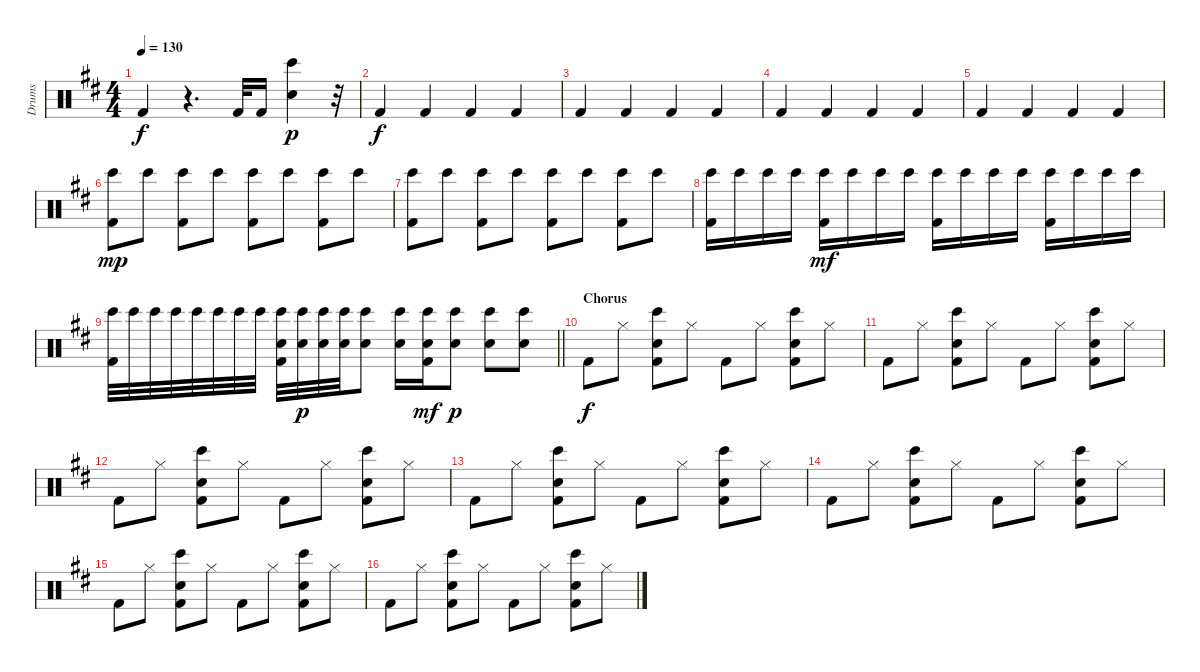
\track ("Drums" "Drums") {instrument percussion}
\staff {score}
\articulation defaults
\ts (4 4)
\tempo 130
\clef neutral
\ks d "Kick (hit) 2".4{dy f}
r.4{d} "Kick (hit) 2".32 "Kick (hit) 2".16 ("Electric Snare (hit)" "Bongo High (hit)").4{dy p} r.32 |
"Kick (hit) 2".4{dy f} "Kick (hit) 2".4 "Kick (hit) 2".4 "Kick (hit) 2".4 |
"Kick (hit) 2".4 "Kick (hit) 2".4 "Kick (hit) 2".4 "Kick (hit) 2".4 |
"Kick (hit) 2".4 "Kick (hit) 2".4 "Kick (hit) 2".4 "Kick (hit) 2".4 |
"Kick (hit) 2".4 "Kick (hit) 2".4 "Kick (hit) 2".4 "Kick (hit) 2".4 |
("Bongo High (hit)" "Kick (hit) 2").8{dy mp} "Bongo High (hit)".8 ("Bongo High (hit)" "Kick (hit) 2").8 "Bongo High (hit)".8 ("Bongo High (hit)" "Kick (hit) 2").8 "Bongo High (hit)".8 ("Bongo High (hit)" "Kick (hit) 2").8 "Bongo High (hit)".8 |
("Bongo High (hit)" "Kick (hit) 2").8 "Bongo High (hit)".8 ("Bongo High (hit)" "Kick (hit) 2").8 "Bongo High (hit)".8 ("Bongo High (hit)" "Kick (hit) 2").8 "Bongo High (hit)".8 ("Bongo High (hit)" "Kick (hit) 2").8 "Bongo High (hit)".8 |
("Bongo High (hit)" "Kick (hit) 2").16 "Bongo High (hit)".16 "Bongo High (hit)".16 "Bongo High (hit)".16 ("Bongo High (hit)" "Kick (hit) 2").16{dy mf} "Bongo High (hit)".16 "Bongo High (hit)".16 "Bongo High (hit)".16 ("Bongo High (hit)" "Kick (hit) 2").16 "Bongo High (hit)".16 "Bongo High (hit)".16 "Bongo High (hit)".16 ("Bongo High (hit)" "Kick (hit) 2").16 "Bongo High (hit)".16 "Bongo High (hit)".16 "Bongo High (hit)".16 |
\barLineRight lightlight
("Bongo High (hit)" "Kick (hit) 2").32 "Bongo High (hit)".32 "Bongo High (hit)".32 "Bongo High (hit)".32 "Bongo High (hit)".32 "Bongo High (hit)".32 "Bongo High (hit)".32 "Bongo High (hit)".32 ("Bongo High (hit)" "Electric Snare (hit)" "Kick (hit) 2").32 ("Bongo High (hit)" "Electric Snare (hit)").32{dy p} ("Bongo High (hit)" "Electric Snare (hit)").32 ("Bongo High (hit)" "Electric Snare (hit)").32 ("Bongo High (hit)" "Electric Snare (hit)").8 ("Electric Snare (hit)" "Bongo High (hit)").16 ("Electric Snare (hit)" "Bongo High (hit)" "Kick (hit) 2").16{dy mf} ("Electric Snare (hit)" "Bongo High (hit)").8{dy p} ("Electric Snare (hit)" "Bongo High (hit)").8 ("Electric Snare (hit)" "Bongo High (hit)").8 |
\section ("" "Chorus")
"Kick (hit) 2".8{dy f} "Hi-Hat (closed)".8 ("Electric Snare (hit)" "Bongo High (hit)" "Kick (hit) 2").8 "Hi-Hat (closed)".8 "Kick (hit) 2".8 "Hi-Hat (closed)".8 ("Electric Snare (hit)" "Bongo High (hit)" "Kick (hit) 2").8 "Hi-Hat (closed)".8 |
"Kick (hit) 2".8 "Hi-Hat (closed)".8 ("Electric Snare (hit)" "Bongo High (hit)" "Kick (hit) 2").8 "Hi-Hat (closed)".8 "Kick (hit) 2".8 "Hi-Hat (closed)".8 ("Electric Snare (hit)" "Bongo High (hit)" "Kick (hit) 2").8 "Hi-Hat (closed)".8 |
"Kick (hit) 2".8 "Hi-Hat (closed)".8 ("Electric Snare (hit)" "Bongo High (hit)" "Kick (hit) 2").8 "Hi-Hat (closed)".8 "Kick (hit) 2".8 "Hi-Hat (closed)".8 ("Electric Snare (hit)" "Bongo High (hit)" "Kick (hit) 2").8 "Hi-Hat (closed)".8 |
"Kick (hit) 2".8 "Hi-Hat (closed)".8 ("Electric Snare (hit)" "Bongo High (hit)" "Kick (hit) 2").8 "Hi-Hat (closed)".8 "Kick (hit) 2".8 "Hi-Hat (closed)".8 ("Electric Snare (hit)" "Bongo High (hit)" "Kick (hit) 2").8 "Hi-Hat (closed)".8 |
"Kick (hit) 2".8 "Hi-Hat (closed)".8 ("Electric Snare (hit)" "Bongo High (hit)" "Kick (hit) 2").8 "Hi-Hat (closed)".8 "Kick (hit) 2".8 "Hi-Hat (closed)".8 ("Electric Snare (hit)" "Bongo High (hit)" "Kick (hit) 2").8 "Hi-Hat (closed)".8 |
"Kick (hit) 2".8 "Hi-Hat (closed)".8 ("Electric Snare (hit)" "Bongo High (hit)" "Kick (hit) 2").8 "Hi-Hat (closed)".8 "Kick (hit) 2".8 "Hi-Hat (closed)".8 ("Electric Snare (hit)" "Bongo High (hit)" "Kick (hit) 2").8 "Hi-Hat (closed)".8 |
"Kick (hit) 2".8 "Hi-Hat (closed)".8 ("Electric Snare (hit)" "Bongo High (hit)" "Kick (hit) 2").8 "Hi-Hat (closed)".8 "Kick (hit) 2".8 "Hi-Hat (closed)".8 ("Electric Snare (hit)" "Bongo High (hit)" "Kick (hit) 2").8 "Hi-Hat (closed)".8
